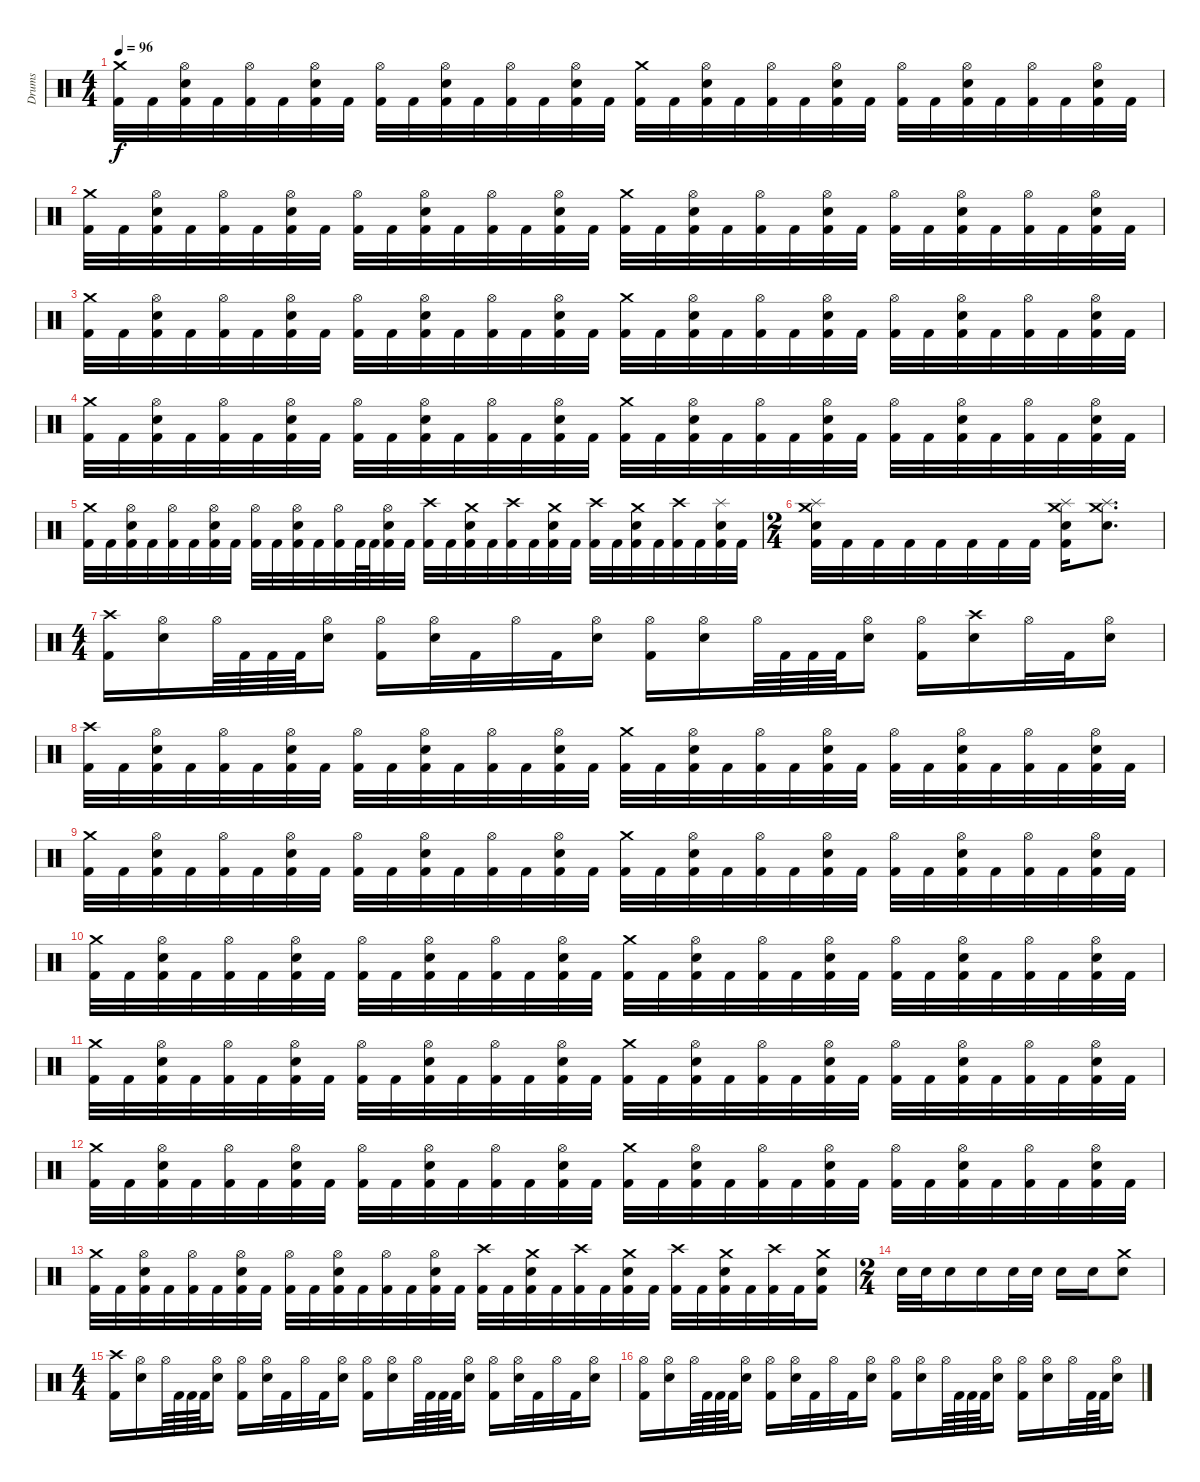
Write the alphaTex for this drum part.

\track ("Drums" "Drums") {instrument percussion}
\staff {score}
\articulation defaults
\ts (4 4)
\tempo 96
\clef neutral
\ks c
("Crash medium (hit)" "Kick (hit) 2").32{dy f} "Kick (hit) 2".32 ("Hi-Hat (open)" "Electric Snare (hit)" "Kick (hit) 2").32 "Kick (hit) 2".32 ("Hi-Hat (open)" "Kick (hit) 2").32 "Kick (hit) 2".32 ("Hi-Hat (open)" "Electric Snare (hit)" "Kick (hit) 2").32 "Kick (hit) 2".32 ("Hi-Hat (open)" "Kick (hit) 2").32 "Kick (hit) 2".32 ("Hi-Hat (open)" "Electric Snare (hit)" "Kick (hit) 2").32 "Kick (hit) 2".32 ("Hi-Hat (open)" "Kick (hit) 2").32 "Kick (hit) 2".32 ("Hi-Hat (open)" "Electric Snare (hit)" "Kick (hit) 2").32 "Kick (hit) 2".32 ("Crash medium (hit)" "Kick (hit) 2").32 "Kick (hit) 2".32 ("Hi-Hat (open)" "Electric Snare (hit)" "Kick (hit) 2").32 "Kick (hit) 2".32 ("Hi-Hat (open)" "Kick (hit) 2").32 "Kick (hit) 2".32 ("Hi-Hat (open)" "Electric Snare (hit)" "Kick (hit) 2").32 "Kick (hit) 2".32 ("Hi-Hat (open)" "Kick (hit) 2").32 "Kick (hit) 2".32 ("Hi-Hat (open)" "Electric Snare (hit)" "Kick (hit) 2").32 "Kick (hit) 2".32 ("Hi-Hat (open)" "Kick (hit) 2").32 "Kick (hit) 2".32 ("Hi-Hat (open)" "Electric Snare (hit)" "Kick (hit) 2").32 "Kick (hit) 2".32 |
("Crash medium (hit)" "Kick (hit) 2").32 "Kick (hit) 2".32 ("Hi-Hat (open)" "Electric Snare (hit)" "Kick (hit) 2").32 "Kick (hit) 2".32 ("Hi-Hat (open)" "Kick (hit) 2").32 "Kick (hit) 2".32 ("Hi-Hat (open)" "Electric Snare (hit)" "Kick (hit) 2").32 "Kick (hit) 2".32 ("Hi-Hat (open)" "Kick (hit) 2").32 "Kick (hit) 2".32 ("Hi-Hat (open)" "Electric Snare (hit)" "Kick (hit) 2").32 "Kick (hit) 2".32 ("Hi-Hat (open)" "Kick (hit) 2").32 "Kick (hit) 2".32 ("Hi-Hat (open)" "Electric Snare (hit)" "Kick (hit) 2").32 "Kick (hit) 2".32 ("Crash medium (hit)" "Kick (hit) 2").32 "Kick (hit) 2".32 ("Hi-Hat (open)" "Electric Snare (hit)" "Kick (hit) 2").32 "Kick (hit) 2".32 ("Hi-Hat (open)" "Kick (hit) 2").32 "Kick (hit) 2".32 ("Hi-Hat (open)" "Electric Snare (hit)" "Kick (hit) 2").32 "Kick (hit) 2".32 ("Hi-Hat (open)" "Kick (hit) 2").32 "Kick (hit) 2".32 ("Hi-Hat (open)" "Electric Snare (hit)" "Kick (hit) 2").32 "Kick (hit) 2".32 ("Hi-Hat (open)" "Kick (hit) 2").32 "Kick (hit) 2".32 ("Hi-Hat (open)" "Electric Snare (hit)" "Kick (hit) 2").32 "Kick (hit) 2".32 |
("Crash medium (hit)" "Kick (hit) 2").32 "Kick (hit) 2".32 ("Hi-Hat (open)" "Electric Snare (hit)" "Kick (hit) 2").32 "Kick (hit) 2".32 ("Hi-Hat (open)" "Kick (hit) 2").32 "Kick (hit) 2".32 ("Hi-Hat (open)" "Electric Snare (hit)" "Kick (hit) 2").32 "Kick (hit) 2".32 ("Hi-Hat (open)" "Kick (hit) 2").32 "Kick (hit) 2".32 ("Hi-Hat (open)" "Electric Snare (hit)" "Kick (hit) 2").32 "Kick (hit) 2".32 ("Hi-Hat (open)" "Kick (hit) 2").32 "Kick (hit) 2".32 ("Hi-Hat (open)" "Electric Snare (hit)" "Kick (hit) 2").32 "Kick (hit) 2".32 ("Crash medium (hit)" "Kick (hit) 2").32 "Kick (hit) 2".32 ("Hi-Hat (open)" "Electric Snare (hit)" "Kick (hit) 2").32 "Kick (hit) 2".32 ("Hi-Hat (open)" "Kick (hit) 2").32 "Kick (hit) 2".32 ("Hi-Hat (open)" "Electric Snare (hit)" "Kick (hit) 2").32 "Kick (hit) 2".32 ("Hi-Hat (open)" "Kick (hit) 2").32 "Kick (hit) 2".32 ("Hi-Hat (open)" "Electric Snare (hit)" "Kick (hit) 2").32 "Kick (hit) 2".32 ("Hi-Hat (open)" "Kick (hit) 2").32 "Kick (hit) 2".32 ("Hi-Hat (open)" "Electric Snare (hit)" "Kick (hit) 2").32 "Kick (hit) 2".32 |
("Crash medium (hit)" "Kick (hit) 2").32 "Kick (hit) 2".32 ("Hi-Hat (open)" "Electric Snare (hit)" "Kick (hit) 2").32 "Kick (hit) 2".32 ("Hi-Hat (open)" "Kick (hit) 2").32 "Kick (hit) 2".32 ("Hi-Hat (open)" "Electric Snare (hit)" "Kick (hit) 2").32 "Kick (hit) 2".32 ("Hi-Hat (open)" "Kick (hit) 2").32 "Kick (hit) 2".32 ("Hi-Hat (open)" "Electric Snare (hit)" "Kick (hit) 2").32 "Kick (hit) 2".32 ("Hi-Hat (open)" "Kick (hit) 2").32 "Kick (hit) 2".32 ("Hi-Hat (open)" "Electric Snare (hit)" "Kick (hit) 2").32 "Kick (hit) 2".32 ("Crash medium (hit)" "Kick (hit) 2").32 "Kick (hit) 2".32 ("Hi-Hat (open)" "Electric Snare (hit)" "Kick (hit) 2").32 "Kick (hit) 2".32 ("Hi-Hat (open)" "Kick (hit) 2").32 "Kick (hit) 2".32 ("Hi-Hat (open)" "Electric Snare (hit)" "Kick (hit) 2").32 "Kick (hit) 2".32 ("Hi-Hat (open)" "Kick (hit) 2").32 "Kick (hit) 2".32 ("Hi-Hat (open)" "Electric Snare (hit)" "Kick (hit) 2").32 "Kick (hit) 2".32 ("Hi-Hat (open)" "Kick (hit) 2").32 "Kick (hit) 2".32 ("Hi-Hat (open)" "Electric Snare (hit)" "Kick (hit) 2").32 "Kick (hit) 2".32 |
("Crash medium (hit)" "Kick (hit) 2").32 "Kick (hit) 2".32 ("Hi-Hat (open)" "Electric Snare (hit)" "Kick (hit) 2").32 "Kick (hit) 2".32 ("Hi-Hat (open)" "Kick (hit) 2").32 "Kick (hit) 2".32 ("Hi-Hat (open)" "Electric Snare (hit)" "Kick (hit) 2").32 "Kick (hit) 2".32 ("Hi-Hat (open)" "Kick (hit) 2").32 "Kick (hit) 2".32 ("Hi-Hat (open)" "Electric Snare (hit)" "Kick (hit) 2").32 "Kick (hit) 2".32 ("Hi-Hat (open)" "Kick (hit) 2").32 "Kick (hit) 2".64 "Kick (hit) 2".64 ("Hi-Hat (open)" "Electric Snare (hit)" "Kick (hit) 2").32 "Kick (hit) 2".32 ("Crash high (hit)" "Kick (hit) 2").32 "Kick (hit) 2".32 ("Crash medium (hit)" "Electric Snare (hit)" "Kick (hit) 2").32 "Kick (hit) 2".32 ("Crash high (hit)" "Kick (hit) 2").32 "Kick (hit) 2".32 ("Crash medium (hit)" "Electric Snare (hit)" "Kick (hit) 2").32 "Kick (hit) 2".32 ("Crash high (hit)" "Kick (hit) 2").32 "Kick (hit) 2".32 ("Crash medium (hit)" "Electric Snare (hit)" "Kick (hit) 2").32 "Kick (hit) 2".32 ("Crash high (hit)" "Kick (hit) 2").32 "Kick (hit) 2".32 ("Splash (hit)" "Electric Snare (hit)" "Kick (hit) 2").32 "Kick (hit) 2".32 |
\ts (2 4)
("Splash (hit)" "Crash medium (hit)" "Electric Snare (hit)" "Kick (hit) 2").32 "Kick (hit) 2".32 "Kick (hit) 2".32 "Kick (hit) 2".32 "Kick (hit) 2".32 "Kick (hit) 2".32 "Kick (hit) 2".32 "Kick (hit) 2".32 ("Splash (hit)" "Crash medium (hit)" "Electric Snare (hit)" "Kick (hit) 2").16 ("Splash (hit)" "Crash medium (hit)" "Electric Snare (hit)").8{d} |
\ts (4 4)
("Crash high (hit)" "Kick (hit) 2").16 ("Hi-Hat (open)" "Electric Snare (hit)").16 "Hi-Hat (open)".64 "Kick (hit) 2".64 "Kick (hit) 2".64 "Kick (hit) 2".64 ("Hi-Hat (open)" "Electric Snare (hit)").16 ("Hi-Hat (open)" "Kick (hit) 2").16 ("Hi-Hat (open)" "Electric Snare (hit)").32 "Kick (hit) 2".32 "Hi-Hat (open)".32 "Kick (hit) 2".32 ("Hi-Hat (open)" "Electric Snare (hit)").16 ("Hi-Hat (open)" "Kick (hit) 2").16 ("Hi-Hat (open)" "Electric Snare (hit)").16 "Hi-Hat (open)".64 "Kick (hit) 2".64 "Kick (hit) 2".64 "Kick (hit) 2".64 ("Hi-Hat (open)" "Electric Snare (hit)").16 ("Hi-Hat (open)" "Kick (hit) 2").16 ("Crash high (hit)" "Electric Snare (hit)").16 "Hi-Hat (open)".32 "Kick (hit) 2".32 ("Hi-Hat (open)" "Electric Snare (hit)").16 |
("Crash high (hit)" "Kick (hit) 2").32 "Kick (hit) 2".32 ("Hi-Hat (open)" "Electric Snare (hit)" "Kick (hit) 2").32 "Kick (hit) 2".32 ("Hi-Hat (open)" "Kick (hit) 2").32 "Kick (hit) 2".32 ("Hi-Hat (open)" "Electric Snare (hit)" "Kick (hit) 2").32 "Kick (hit) 2".32 ("Hi-Hat (open)" "Kick (hit) 2").32 "Kick (hit) 2".32 ("Hi-Hat (open)" "Electric Snare (hit)" "Kick (hit) 2").32 "Kick (hit) 2".32 ("Hi-Hat (open)" "Kick (hit) 2").32 "Kick (hit) 2".32 ("Hi-Hat (open)" "Electric Snare (hit)" "Kick (hit) 2").32 "Kick (hit) 2".32 ("Crash medium (hit)" "Kick (hit) 2").32 "Kick (hit) 2".32 ("Hi-Hat (open)" "Electric Snare (hit)" "Kick (hit) 2").32 "Kick (hit) 2".32 ("Hi-Hat (open)" "Kick (hit) 2").32 "Kick (hit) 2".32 ("Hi-Hat (open)" "Electric Snare (hit)" "Kick (hit) 2").32 "Kick (hit) 2".32 ("Hi-Hat (open)" "Kick (hit) 2").32 "Kick (hit) 2".32 ("Hi-Hat (open)" "Electric Snare (hit)" "Kick (hit) 2").32 "Kick (hit) 2".32 ("Hi-Hat (open)" "Kick (hit) 2").32 "Kick (hit) 2".32 ("Hi-Hat (open)" "Electric Snare (hit)" "Kick (hit) 2").32 "Kick (hit) 2".32 |
("Crash medium (hit)" "Kick (hit) 2").32 "Kick (hit) 2".32 ("Hi-Hat (open)" "Electric Snare (hit)" "Kick (hit) 2").32 "Kick (hit) 2".32 ("Hi-Hat (open)" "Kick (hit) 2").32 "Kick (hit) 2".32 ("Hi-Hat (open)" "Electric Snare (hit)" "Kick (hit) 2").32 "Kick (hit) 2".32 ("Hi-Hat (open)" "Kick (hit) 2").32 "Kick (hit) 2".32 ("Hi-Hat (open)" "Electric Snare (hit)" "Kick (hit) 2").32 "Kick (hit) 2".32 ("Hi-Hat (open)" "Kick (hit) 2").32 "Kick (hit) 2".32 ("Hi-Hat (open)" "Electric Snare (hit)" "Kick (hit) 2").32 "Kick (hit) 2".32 ("Crash medium (hit)" "Kick (hit) 2").32 "Kick (hit) 2".32 ("Hi-Hat (open)" "Electric Snare (hit)" "Kick (hit) 2").32 "Kick (hit) 2".32 ("Hi-Hat (open)" "Kick (hit) 2").32 "Kick (hit) 2".32 ("Hi-Hat (open)" "Electric Snare (hit)" "Kick (hit) 2").32 "Kick (hit) 2".32 ("Hi-Hat (open)" "Kick (hit) 2").32 "Kick (hit) 2".32 ("Hi-Hat (open)" "Electric Snare (hit)" "Kick (hit) 2").32 "Kick (hit) 2".32 ("Hi-Hat (open)" "Kick (hit) 2").32 "Kick (hit) 2".32 ("Hi-Hat (open)" "Electric Snare (hit)" "Kick (hit) 2").32 "Kick (hit) 2".32 |
("Crash medium (hit)" "Kick (hit) 2").32 "Kick (hit) 2".32 ("Hi-Hat (open)" "Electric Snare (hit)" "Kick (hit) 2").32 "Kick (hit) 2".32 ("Hi-Hat (open)" "Kick (hit) 2").32 "Kick (hit) 2".32 ("Hi-Hat (open)" "Electric Snare (hit)" "Kick (hit) 2").32 "Kick (hit) 2".32 ("Hi-Hat (open)" "Kick (hit) 2").32 "Kick (hit) 2".32 ("Hi-Hat (open)" "Electric Snare (hit)" "Kick (hit) 2").32 "Kick (hit) 2".32 ("Hi-Hat (open)" "Kick (hit) 2").32 "Kick (hit) 2".32 ("Hi-Hat (open)" "Electric Snare (hit)" "Kick (hit) 2").32 "Kick (hit) 2".32 ("Crash medium (hit)" "Kick (hit) 2").32 "Kick (hit) 2".32 ("Hi-Hat (open)" "Electric Snare (hit)" "Kick (hit) 2").32 "Kick (hit) 2".32 ("Hi-Hat (open)" "Kick (hit) 2").32 "Kick (hit) 2".32 ("Hi-Hat (open)" "Electric Snare (hit)" "Kick (hit) 2").32 "Kick (hit) 2".32 ("Hi-Hat (open)" "Kick (hit) 2").32 "Kick (hit) 2".32 ("Hi-Hat (open)" "Electric Snare (hit)" "Kick (hit) 2").32 "Kick (hit) 2".32 ("Hi-Hat (open)" "Kick (hit) 2").32 "Kick (hit) 2".32 ("Hi-Hat (open)" "Electric Snare (hit)" "Kick (hit) 2").32 "Kick (hit) 2".32 |
("Crash medium (hit)" "Kick (hit) 2").32 "Kick (hit) 2".32 ("Hi-Hat (open)" "Electric Snare (hit)" "Kick (hit) 2").32 "Kick (hit) 2".32 ("Hi-Hat (open)" "Kick (hit) 2").32 "Kick (hit) 2".32 ("Hi-Hat (open)" "Electric Snare (hit)" "Kick (hit) 2").32 "Kick (hit) 2".32 ("Hi-Hat (open)" "Kick (hit) 2").32 "Kick (hit) 2".32 ("Hi-Hat (open)" "Electric Snare (hit)" "Kick (hit) 2").32 "Kick (hit) 2".32 ("Hi-Hat (open)" "Kick (hit) 2").32 "Kick (hit) 2".32 ("Hi-Hat (open)" "Electric Snare (hit)" "Kick (hit) 2").32 "Kick (hit) 2".32 ("Crash medium (hit)" "Kick (hit) 2").32 "Kick (hit) 2".32 ("Hi-Hat (open)" "Electric Snare (hit)" "Kick (hit) 2").32 "Kick (hit) 2".32 ("Hi-Hat (open)" "Kick (hit) 2").32 "Kick (hit) 2".32 ("Hi-Hat (open)" "Electric Snare (hit)" "Kick (hit) 2").32 "Kick (hit) 2".32 ("Hi-Hat (open)" "Kick (hit) 2").32 "Kick (hit) 2".32 ("Hi-Hat (open)" "Electric Snare (hit)" "Kick (hit) 2").32 "Kick (hit) 2".32 ("Hi-Hat (open)" "Kick (hit) 2").32 "Kick (hit) 2".32 ("Hi-Hat (open)" "Electric Snare (hit)" "Kick (hit) 2").32 "Kick (hit) 2".32 |
("Crash medium (hit)" "Kick (hit) 2").32 "Kick (hit) 2".32 ("Hi-Hat (open)" "Electric Snare (hit)" "Kick (hit) 2").32 "Kick (hit) 2".32 ("Hi-Hat (open)" "Kick (hit) 2").32 "Kick (hit) 2".32 ("Hi-Hat (open)" "Electric Snare (hit)" "Kick (hit) 2").32 "Kick (hit) 2".32 ("Hi-Hat (open)" "Kick (hit) 2").32 "Kick (hit) 2".32 ("Hi-Hat (open)" "Electric Snare (hit)" "Kick (hit) 2").32 "Kick (hit) 2".32 ("Hi-Hat (open)" "Kick (hit) 2").32 "Kick (hit) 2".32 ("Hi-Hat (open)" "Electric Snare (hit)" "Kick (hit) 2").32 "Kick (hit) 2".32 ("Crash medium (hit)" "Kick (hit) 2").32 "Kick (hit) 2".32 ("Hi-Hat (open)" "Electric Snare (hit)" "Kick (hit) 2").32 "Kick (hit) 2".32 ("Hi-Hat (open)" "Kick (hit) 2").32 "Kick (hit) 2".32 ("Hi-Hat (open)" "Electric Snare (hit)" "Kick (hit) 2").32 "Kick (hit) 2".32 ("Hi-Hat (open)" "Kick (hit) 2").32 "Kick (hit) 2".32 ("Hi-Hat (open)" "Electric Snare (hit)" "Kick (hit) 2").32 "Kick (hit) 2".32 ("Hi-Hat (open)" "Kick (hit) 2").32 "Kick (hit) 2".32 ("Hi-Hat (open)" "Electric Snare (hit)" "Kick (hit) 2").32 "Kick (hit) 2".32 |
("Crash medium (hit)" "Kick (hit) 2").32 "Kick (hit) 2".32 ("Hi-Hat (open)" "Electric Snare (hit)" "Kick (hit) 2").32 "Kick (hit) 2".32 ("Hi-Hat (open)" "Kick (hit) 2").32 "Kick (hit) 2".32 ("Hi-Hat (open)" "Electric Snare (hit)" "Kick (hit) 2").32 "Kick (hit) 2".32 ("Hi-Hat (open)" "Kick (hit) 2").32 "Kick (hit) 2".32 ("Hi-Hat (open)" "Electric Snare (hit)" "Kick (hit) 2").32 "Kick (hit) 2".32 ("Hi-Hat (open)" "Kick (hit) 2").32 "Kick (hit) 2".32 ("Hi-Hat (open)" "Electric Snare (hit)" "Kick (hit) 2").32 "Kick (hit) 2".32 ("Crash high (hit)" "Kick (hit) 2").32 "Kick (hit) 2".32 ("Crash medium (hit)" "Electric Snare (hit)" "Kick (hit) 2").32 "Kick (hit) 2".32 ("Crash high (hit)" "Kick (hit) 2").32 "Kick (hit) 2".32 ("Crash medium (hit)" "Electric Snare (hit)" "Kick (hit) 2").32 "Kick (hit) 2".32 ("Crash high (hit)" "Kick (hit) 2").32 "Kick (hit) 2".32 ("Crash medium (hit)" "Electric Snare (hit)" "Kick (hit) 2").32 "Kick (hit) 2".32 ("Crash high (hit)" "Kick (hit) 2").32 "Kick (hit) 2".32 ("Crash medium (hit)" "Electric Snare (hit)" "Kick (hit) 2").16 |
\ts (2 4)
"Electric Snare (hit)".32 "Electric Snare (hit)".32 "Electric Snare (hit)".16 "Electric Snare (hit)".16 "Electric Snare (hit)".32 "Electric Snare (hit)".32 "Electric Snare (hit)".16 "Electric Snare (hit)".16 ("Crash medium (hit)" "Electric Snare (hit)").8 |
\ts (4 4)
("Crash high (hit)" "Kick (hit) 2").16 ("Hi-Hat (open)" "Electric Snare (hit)").16 "Hi-Hat (open)".64 "Kick (hit) 2".64 "Kick (hit) 2".64 "Kick (hit) 2".64 ("Hi-Hat (open)" "Electric Snare (hit)").16 ("Hi-Hat (open)" "Kick (hit) 2").16 ("Hi-Hat (open)" "Electric Snare (hit)").32 "Kick (hit) 2".32 "Hi-Hat (open)".32 "Kick (hit) 2".32 ("Hi-Hat (open)" "Electric Snare (hit)").16 ("Hi-Hat (open)" "Kick (hit) 2").16 ("Hi-Hat (open)" "Electric Snare (hit)").16 "Hi-Hat (open)".64 "Kick (hit) 2".64 "Kick (hit) 2".64 "Kick (hit) 2".64 ("Hi-Hat (open)" "Electric Snare (hit)").16 ("Hi-Hat (open)" "Kick (hit) 2").16 ("Hi-Hat (open)" "Electric Snare (hit)").32 "Kick (hit) 2".32 "Hi-Hat (open)".32 "Kick (hit) 2".32 ("Hi-Hat (open)" "Electric Snare (hit)").16 |
("Hi-Hat (open)" "Kick (hit) 2").16 ("Hi-Hat (open)" "Electric Snare (hit)").16 "Hi-Hat (open)".64 "Kick (hit) 2".64 "Kick (hit) 2".64 "Kick (hit) 2".64 ("Hi-Hat (open)" "Electric Snare (hit)").16 ("Hi-Hat (open)" "Kick (hit) 2").16 ("Hi-Hat (open)" "Electric Snare (hit)").32 "Kick (hit) 2".32 "Hi-Hat (open)".32 "Kick (hit) 2".32 ("Hi-Hat (open)" "Electric Snare (hit)").16 ("Hi-Hat (open)" "Kick (hit) 2").16 ("Hi-Hat (open)" "Electric Snare (hit)").16 "Hi-Hat (open)".64 "Kick (hit) 2".64 "Kick (hit) 2".64 "Kick (hit) 2".64 ("Hi-Hat (open)" "Electric Snare (hit)").16 ("Hi-Hat (open)" "Kick (hit) 2").16 ("Hi-Hat (open)" "Electric Snare (hit)").16 "Hi-Hat (open)".32 "Kick (hit) 2".64 "Kick (hit) 2".64 ("Hi-Hat (open)" "Electric Snare (hit)").16
